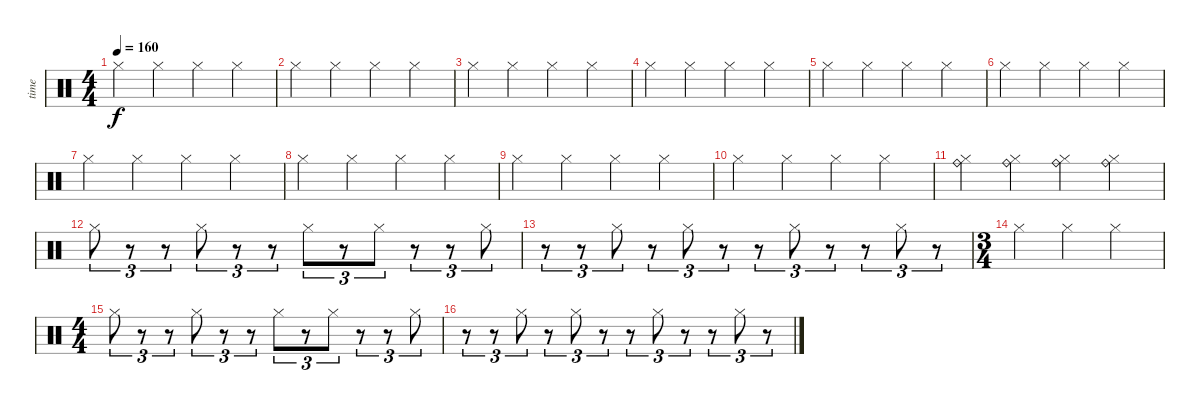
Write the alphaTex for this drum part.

\track ("time" "time") {instrument percussion}
\staff {score}
\articulation defaults
\ts (4 4)
\tempo 160
\clef neutral
\ks c "Hi-Hat (closed)".4{dy f} "Hi-Hat (closed)".4 "Hi-Hat (closed)".4 "Hi-Hat (closed)".4
|
"Hi-Hat (closed)".4 "Hi-Hat (closed)".4 "Hi-Hat (closed)".4 "Hi-Hat (closed)".4 |
"Hi-Hat (closed)".4 "Hi-Hat (closed)".4 "Hi-Hat (closed)".4 "Hi-Hat (closed)".4 |
"Hi-Hat (closed)".4 "Hi-Hat (closed)".4 "Hi-Hat (closed)".4 "Hi-Hat (closed)".4 |
"Hi-Hat (closed)".4 "Hi-Hat (closed)".4 "Hi-Hat (closed)".4 "Hi-Hat (closed)".4 |
"Hi-Hat (closed)".4 "Hi-Hat (closed)".4 "Hi-Hat (closed)".4 "Hi-Hat (closed)".4 |
"Hi-Hat (closed)".4 "Hi-Hat (closed)".4 "Hi-Hat (closed)".4 "Hi-Hat (closed)".4 |
"Hi-Hat (closed)".4 "Hi-Hat (closed)".4 "Hi-Hat (closed)".4 "Hi-Hat (closed)".4 |
"Hi-Hat (closed)".4 "Hi-Hat (closed)".4 "Hi-Hat (closed)".4 "Hi-Hat (closed)".4 |
"Hi-Hat (closed)".4 "Hi-Hat (closed)".4 "Hi-Hat (closed)".4 "Hi-Hat (closed)".4 |
("Ride (bell)" "Hi-Hat (closed)").4 ("Ride (bell)" "Hi-Hat (closed)").4 ("Ride (bell)" "Hi-Hat (closed)").4 ("Ride (bell)" "Hi-Hat (closed)").4 |
"Hi-Hat (closed)".8{tu (3 2)} r.8{tu (3 2)} r.8{tu (3 2)} "Hi-Hat (closed)".8{tu (3 2)} r.8{tu (3 2)} r.8{tu (3 2)} "Hi-Hat (closed)".8{tu (3 2)} r.8{tu (3 2)} "Hi-Hat (closed)".8{tu (3 2)} r.8{tu (3 2)} r.8{tu (3 2)} "Hi-Hat (closed)".8{tu (3 2)} |
r.8{tu (3 2)} r.8{tu (3 2)} "Hi-Hat (closed)".8{tu (3 2)} r.8{tu (3 2)} "Hi-Hat (closed)".8{tu (3 2)} r.8{tu (3 2)} r.8{tu (3 2)} "Hi-Hat (closed)".8{tu (3 2)} r.8{tu (3 2)} r.8{tu (3 2)} "Hi-Hat (closed)".8{tu (3 2)} r.8{tu (3 2)} |
\ts (3 4)
"Hi-Hat (closed)".4 "Hi-Hat (closed)".4 "Hi-Hat (closed)".4 |
\ts (4 4)
"Hi-Hat (closed)".8{tu (3 2)} r.8{tu (3 2)} r.8{tu (3 2)} "Hi-Hat (closed)".8{tu (3 2)} r.8{tu (3 2)} r.8{tu (3 2)} "Hi-Hat (closed)".8{tu (3 2)} r.8{tu (3 2)} "Hi-Hat (closed)".8{tu (3 2)} r.8{tu (3 2)} r.8{tu (3 2)} "Hi-Hat (closed)".8{tu (3 2)} |
r.8{tu (3 2)} r.8{tu (3 2)} "Hi-Hat (closed)".8{tu (3 2)} r.8{tu (3 2)} "Hi-Hat (closed)".8{tu (3 2)} r.8{tu (3 2)} r.8{tu (3 2)} "Hi-Hat (closed)".8{tu (3 2)} r.8{tu (3 2)} r.8{tu (3 2)} "Hi-Hat (closed)".8{tu (3 2)} r.8{tu (3 2)}
